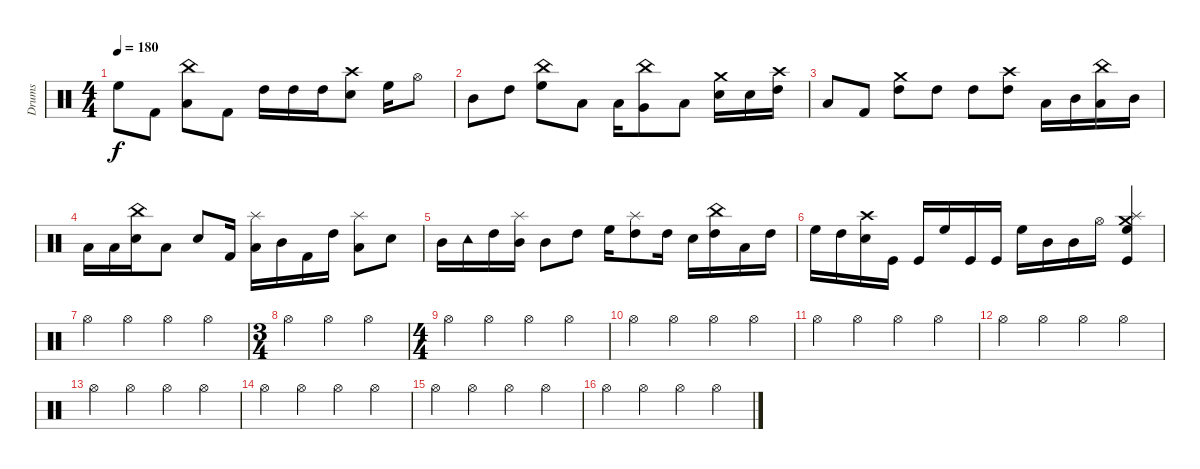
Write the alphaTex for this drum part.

\track ("Drums" "Drums") {instrument percussion}
\staff {score}
\articulation defaults
\ts (4 4)
\tempo 180
\clef neutral
\ks c "High Floor Tom (hit)".8{dy f} "Kick (hit) 2".8
("Low Floor Tom (hit)" "China (hit)").8 "Kick (hit) 2".8 "High Tom (hit)".16 "High Tom (hit)".16 "High Tom (hit)".16 ("Snare (hit) 2" "Crash high (hit)").8 "High Floor Tom (hit)".16 "Hi-Hat (open)".8 |
"Mid Tom (hit)".8 "High Tom (hit)".8 ("High Floor Tom (hit)" "China (hit)").8 "Low Tom (hit)".8 "Low Floor Tom (hit)".16 ("Very Low Tom (hit)" "China (hit)").8 "Low Floor Tom (hit)".8 ("Electric Snare (hit)" "Crash medium (hit)").16 "Snare (hit) 2".16 ("High Tom (hit)" "Crash high (hit)").16 |
"Low Floor Tom (hit)".8 "Kick (hit) 2".8 ("High Tom (hit)" "Crash medium (hit)").8 "High Tom (hit)".8 "High Tom (hit)".8 ("High Tom (hit)" "Crash high (hit)").8 "Low Tom (hit)".16 "Mid Tom (hit)".16 ("Low Tom (hit)" "China (hit)").16 "Mid Tom (hit)".16 |
"Low Tom (hit)".16 "Low Tom (hit)".16 ("Electric Snare (hit)" "China (hit)").16 "Low Tom (hit)".8 "Electric Snare (hit)".8 "Kick (hit) 2".16 ("Low Tom (hit)" "Splash (hit)").16 "Mid Tom (hit)".16 "Kick (hit) 2".16 "High Tom (hit)".16 ("Low Tom (hit)" "Splash (hit)").8 "Snare (hit) 2".8 |
"Mid Tom (hit)".16 "Tambourine (hit)".16 "High Tom (hit)".16 ("Mid Tom (hit)" "Splash (hit)").16 "Mid Tom (hit)".8 "High Tom (hit)".8 "High Floor Tom (hit)".16 ("High Tom (hit)" "Splash (hit)").8 "High Tom (hit)".16 "Electric Snare (hit)".16 ("High Tom (hit)" "China (hit)").16 "Low Tom (hit)".16 "High Tom (hit)".16 |
"High Floor Tom (hit)".16 "High Tom (hit)".16 ("Electric Snare (hit)" "Crash high (hit)").16 "Kick (hit)".16 "Kick (hit)".16 "High Floor Tom (hit)".16 "Kick (hit)".16 "Kick (hit)".16 "High Floor Tom (hit)".16 "Mid Tom (hit)".16 "Mid Tom (hit)".16 "Hi-Hat (open)".16 ("High Floor Tom (hit)" "Kick (hit)" "Splash (hit)" "Crash medium (hit)").4 |
"Hi-Hat (open)".4 "Hi-Hat (open)".4 "Hi-Hat (open)".4 "Hi-Hat (open)".4 |
\ts (3 4)
"Hi-Hat (open)".4 "Hi-Hat (open)".4 "Hi-Hat (open)".4 |
\ts (4 4)
"Hi-Hat (open)".4 "Hi-Hat (open)".4 "Hi-Hat (open)".4 "Hi-Hat (open)".4 |
"Hi-Hat (open)".4 "Hi-Hat (open)".4 "Hi-Hat (open)".4 "Hi-Hat (open)".4 |
"Hi-Hat (open)".4 "Hi-Hat (open)".4 "Hi-Hat (open)".4 "Hi-Hat (open)".4 |
"Hi-Hat (open)".4 "Hi-Hat (open)".4 "Hi-Hat (open)".4 "Hi-Hat (open)".4 |
"Hi-Hat (open)".4 "Hi-Hat (open)".4 "Hi-Hat (open)".4 "Hi-Hat (open)".4 |
"Hi-Hat (open)".4 "Hi-Hat (open)".4 "Hi-Hat (open)".4 "Hi-Hat (open)".4 |
"Hi-Hat (open)".4 "Hi-Hat (open)".4 "Hi-Hat (open)".4 "Hi-Hat (open)".4 |
"Hi-Hat (open)".4 "Hi-Hat (open)".4 "Hi-Hat (open)".4 "Hi-Hat (open)".4
